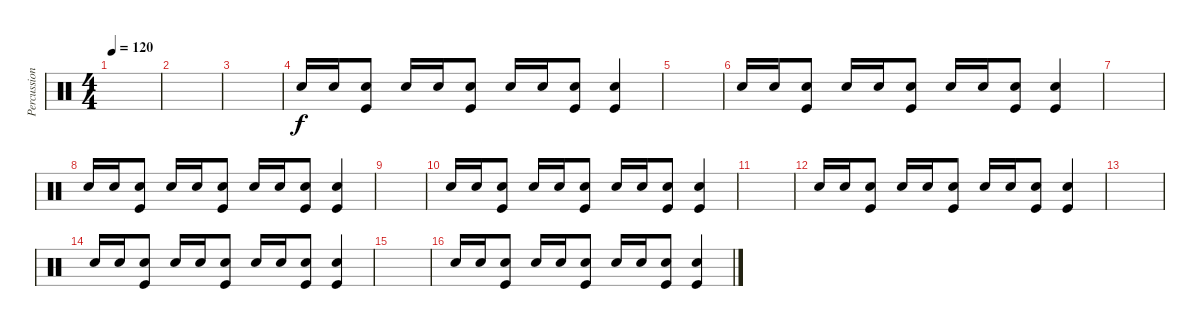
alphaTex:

\track ("Percussion" "Percussion") {instrument percussion}
\staff {score}
\articulation defaults
\ts (4 4)
\tempo 120
\clef neutral
\ks c
|
|
|
"Electric Snare (hit)".16 "Electric Snare (hit)".16 ("Electric Snare (hit)" "Kick (hit)").8 "Electric Snare (hit)".16 "Electric Snare (hit)".16 ("Electric Snare (hit)" "Kick (hit)").8 "Electric Snare (hit)".16 "Electric Snare (hit)".16 ("Electric Snare (hit)" "Kick (hit)").8 ("Electric Snare (hit)" "Kick (hit)").4 |
|
"Electric Snare (hit)".16 "Electric Snare (hit)".16 ("Electric Snare (hit)" "Kick (hit)").8 "Electric Snare (hit)".16 "Electric Snare (hit)".16 ("Electric Snare (hit)" "Kick (hit)").8 "Electric Snare (hit)".16 "Electric Snare (hit)".16 ("Electric Snare (hit)" "Kick (hit)").8 ("Electric Snare (hit)" "Kick (hit)").4 |
|
"Electric Snare (hit)".16 "Electric Snare (hit)".16 ("Electric Snare (hit)" "Kick (hit)").8 "Electric Snare (hit)".16 "Electric Snare (hit)".16 ("Electric Snare (hit)" "Kick (hit)").8 "Electric Snare (hit)".16 "Electric Snare (hit)".16 ("Electric Snare (hit)" "Kick (hit)").8 ("Electric Snare (hit)" "Kick (hit)").4 |
|
"Electric Snare (hit)".16 "Electric Snare (hit)".16 ("Electric Snare (hit)" "Kick (hit)").8 "Electric Snare (hit)".16 "Electric Snare (hit)".16 ("Electric Snare (hit)" "Kick (hit)").8 "Electric Snare (hit)".16 "Electric Snare (hit)".16 ("Electric Snare (hit)" "Kick (hit)").8 ("Electric Snare (hit)" "Kick (hit)").4 |
|
"Electric Snare (hit)".16 "Electric Snare (hit)".16 ("Electric Snare (hit)" "Kick (hit)").8 "Electric Snare (hit)".16 "Electric Snare (hit)".16 ("Electric Snare (hit)" "Kick (hit)").8 "Electric Snare (hit)".16 "Electric Snare (hit)".16 ("Electric Snare (hit)" "Kick (hit)").8 ("Electric Snare (hit)" "Kick (hit)").4 |
|
"Electric Snare (hit)".16 "Electric Snare (hit)".16 ("Electric Snare (hit)" "Kick (hit)").8 "Electric Snare (hit)".16 "Electric Snare (hit)".16 ("Electric Snare (hit)" "Kick (hit)").8 "Electric Snare (hit)".16 "Electric Snare (hit)".16 ("Electric Snare (hit)" "Kick (hit)").8 ("Electric Snare (hit)" "Kick (hit)").4 |
|
"Electric Snare (hit)".16 "Electric Snare (hit)".16 ("Electric Snare (hit)" "Kick (hit)").8 "Electric Snare (hit)".16 "Electric Snare (hit)".16 ("Electric Snare (hit)" "Kick (hit)").8 "Electric Snare (hit)".16 "Electric Snare (hit)".16 ("Electric Snare (hit)" "Kick (hit)").8 ("Electric Snare (hit)" "Kick (hit)").4
